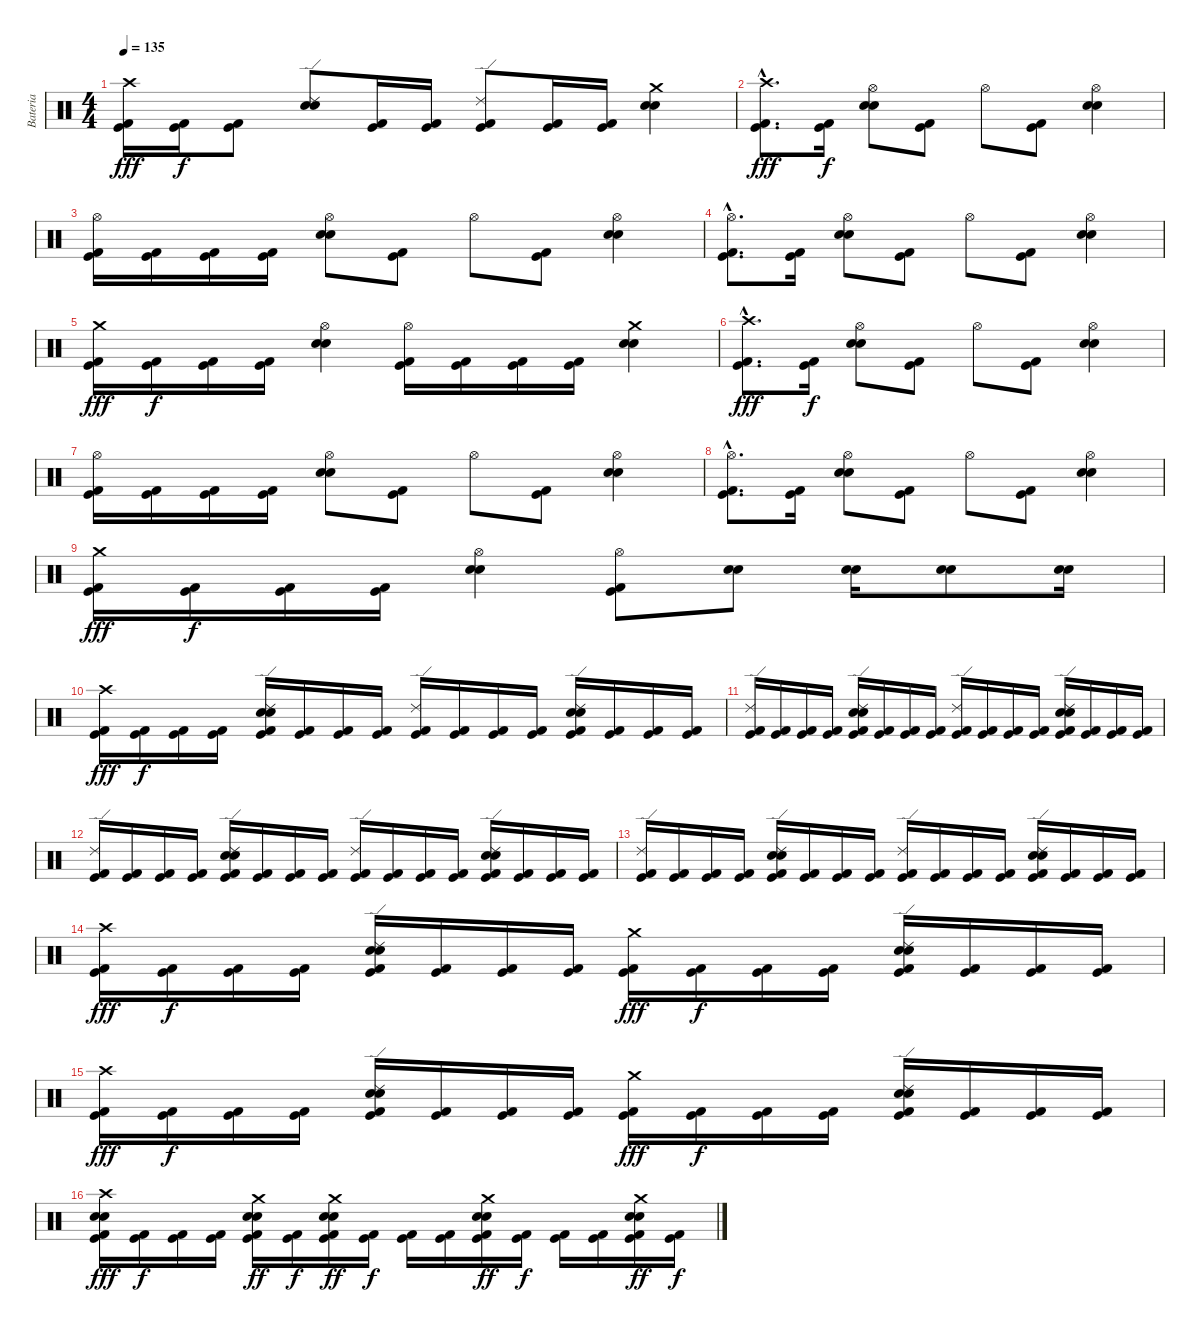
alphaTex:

\track ("Bateria" "Bateria") {instrument percussion}
\staff {score}
\articulation defaults
\ts (4 4)
\tempo 135
\clef neutral
\ks c
("Crash high (hit)" "Kick (hit) 2" "Kick (hit)").16{dy fff} ("Kick (hit) 2" "Kick (hit)").16{dy f} ("Kick (hit) 2" "Kick (hit)").8 ("Ride (edge) 2" "Electric Snare (hit)" "Snare (hit) 2").8 ("Kick (hit) 2" "Kick (hit)").16 ("Kick (hit) 2" "Kick (hit)").16 ("Ride (edge) 2" "Kick (hit) 2" "Kick (hit)").8 ("Kick (hit) 2" "Kick (hit)").16 ("Kick (hit) 2" "Kick (hit)").16 ("Crash medium (hit)" "Electric Snare (hit)" "Snare (hit) 2").4 |
("Crash high (hit)"{hac} "Kick (hit) 2"{hac} "Kick (hit)"{hac}).8{d dy fff} ("Kick (hit) 2" "Kick (hit)").16{dy f} ("Hi-Hat (open)" "Electric Snare (hit)" "Snare (hit) 2").8 ("Kick (hit) 2" "Kick (hit)").8 "Hi-Hat (open)".8 ("Kick (hit) 2" "Kick (hit)").8 ("Hi-Hat (open)" "Electric Snare (hit)" "Snare (hit) 2").4 |
("Hi-Hat (open)" "Kick (hit) 2" "Kick (hit)").16 ("Kick (hit) 2" "Kick (hit)").16 ("Kick (hit) 2" "Kick (hit)").16 ("Kick (hit) 2" "Kick (hit)").16 ("Hi-Hat (open)" "Electric Snare (hit)" "Snare (hit) 2").8 ("Kick (hit) 2" "Kick (hit)").8 "Hi-Hat (open)".8 ("Kick (hit) 2" "Kick (hit)").8 ("Hi-Hat (open)" "Electric Snare (hit)" "Snare (hit) 2").4 |
("Hi-Hat (open)"{hac} "Kick (hit) 2"{hac} "Kick (hit)"{hac}).8{d} ("Kick (hit) 2" "Kick (hit)").16 ("Hi-Hat (open)" "Electric Snare (hit)" "Snare (hit) 2").8 ("Kick (hit) 2" "Kick (hit)").8 "Hi-Hat (open)".8 ("Kick (hit) 2" "Kick (hit)").8 ("Hi-Hat (open)" "Electric Snare (hit)" "Snare (hit) 2").4 |
("Crash medium (hit)" "Kick (hit) 2" "Kick (hit)").16{dy fff} ("Kick (hit) 2" "Kick (hit)").16{dy f} ("Kick (hit) 2" "Kick (hit)").16 ("Kick (hit) 2" "Kick (hit)").16 ("Hi-Hat (open)" "Electric Snare (hit)" "Snare (hit) 2").4 ("Hi-Hat (open)" "Kick (hit) 2" "Kick (hit)").16 ("Kick (hit) 2" "Kick (hit)").16 ("Kick (hit) 2" "Kick (hit)").16 ("Kick (hit) 2" "Kick (hit)").16 ("Crash medium (hit)" "Electric Snare (hit)" "Snare (hit) 2").4 |
("Crash high (hit)"{hac} "Kick (hit) 2"{hac} "Kick (hit)"{hac}).8{d dy fff} ("Kick (hit) 2" "Kick (hit)").16{dy f} ("Hi-Hat (open)" "Electric Snare (hit)" "Snare (hit) 2").8 ("Kick (hit) 2" "Kick (hit)").8 "Hi-Hat (open)".8 ("Kick (hit) 2" "Kick (hit)").8 ("Hi-Hat (open)" "Electric Snare (hit)" "Snare (hit) 2").4 |
("Hi-Hat (open)" "Kick (hit) 2" "Kick (hit)").16 ("Kick (hit) 2" "Kick (hit)").16 ("Kick (hit) 2" "Kick (hit)").16 ("Kick (hit) 2" "Kick (hit)").16 ("Hi-Hat (open)" "Electric Snare (hit)" "Snare (hit) 2").8 ("Kick (hit) 2" "Kick (hit)").8 "Hi-Hat (open)".8 ("Kick (hit) 2" "Kick (hit)").8 ("Hi-Hat (open)" "Electric Snare (hit)" "Snare (hit) 2").4 |
("Hi-Hat (open)"{hac} "Kick (hit) 2"{hac} "Kick (hit)"{hac}).8{d} ("Kick (hit) 2" "Kick (hit)").16 ("Hi-Hat (open)" "Electric Snare (hit)" "Snare (hit) 2").8 ("Kick (hit) 2" "Kick (hit)").8 "Hi-Hat (open)".8 ("Kick (hit) 2" "Kick (hit)").8 ("Hi-Hat (open)" "Electric Snare (hit)" "Snare (hit) 2").4 |
("Crash medium (hit)" "Kick (hit) 2" "Kick (hit)").16{dy fff} ("Kick (hit) 2" "Kick (hit)").16{dy f} ("Kick (hit) 2" "Kick (hit)").16 ("Kick (hit) 2" "Kick (hit)").16 ("Hi-Hat (open)" "Electric Snare (hit)" "Snare (hit) 2").4 ("Hi-Hat (open)" "Kick (hit) 2" "Kick (hit)").8 ("Electric Snare (hit)" "Snare (hit) 2").8 ("Electric Snare (hit)" "Snare (hit) 2").16 ("Electric Snare (hit)" "Snare (hit) 2").8 ("Electric Snare (hit)" "Snare (hit) 2").16 |
("Crash high (hit)" "Kick (hit) 2" "Kick (hit)").16{dy fff} ("Kick (hit) 2" "Kick (hit)").16{dy f} ("Kick (hit) 2" "Kick (hit)").16 ("Kick (hit) 2" "Kick (hit)").16 ("Ride (edge) 2" "Electric Snare (hit)" "Snare (hit) 2" "Kick (hit) 2" "Kick (hit)").16 ("Kick (hit) 2" "Kick (hit)").16 ("Kick (hit) 2" "Kick (hit)").16 ("Kick (hit) 2" "Kick (hit)").16 ("Ride (edge) 2" "Kick (hit) 2" "Kick (hit)").16 ("Kick (hit) 2" "Kick (hit)").16 ("Kick (hit) 2" "Kick (hit)").16 ("Kick (hit) 2" "Kick (hit)").16 ("Ride (edge) 2" "Electric Snare (hit)" "Snare (hit) 2" "Kick (hit) 2" "Kick (hit)").16 ("Kick (hit) 2" "Kick (hit)").16 ("Kick (hit) 2" "Kick (hit)").16 ("Kick (hit) 2" "Kick (hit)").16 |
("Ride (edge) 2" "Kick (hit) 2" "Kick (hit)").16 ("Kick (hit) 2" "Kick (hit)").16 ("Kick (hit) 2" "Kick (hit)").16 ("Kick (hit) 2" "Kick (hit)").16 ("Ride (edge) 2" "Electric Snare (hit)" "Snare (hit) 2" "Kick (hit) 2" "Kick (hit)").16 ("Kick (hit) 2" "Kick (hit)").16 ("Kick (hit) 2" "Kick (hit)").16 ("Kick (hit) 2" "Kick (hit)").16 ("Ride (edge) 2" "Kick (hit) 2" "Kick (hit)").16 ("Kick (hit) 2" "Kick (hit)").16 ("Kick (hit) 2" "Kick (hit)").16 ("Kick (hit) 2" "Kick (hit)").16 ("Ride (edge) 2" "Electric Snare (hit)" "Snare (hit) 2" "Kick (hit) 2" "Kick (hit)").16 ("Kick (hit) 2" "Kick (hit)").16 ("Kick (hit) 2" "Kick (hit)").16 ("Kick (hit) 2" "Kick (hit)").16 |
("Ride (edge) 2" "Kick (hit) 2" "Kick (hit)").16 ("Kick (hit) 2" "Kick (hit)").16 ("Kick (hit) 2" "Kick (hit)").16 ("Kick (hit) 2" "Kick (hit)").16 ("Ride (edge) 2" "Electric Snare (hit)" "Snare (hit) 2" "Kick (hit) 2" "Kick (hit)").16 ("Kick (hit) 2" "Kick (hit)").16 ("Kick (hit) 2" "Kick (hit)").16 ("Kick (hit) 2" "Kick (hit)").16 ("Ride (edge) 2" "Kick (hit) 2" "Kick (hit)").16 ("Kick (hit) 2" "Kick (hit)").16 ("Kick (hit) 2" "Kick (hit)").16 ("Kick (hit) 2" "Kick (hit)").16 ("Ride (edge) 2" "Electric Snare (hit)" "Snare (hit) 2" "Kick (hit) 2" "Kick (hit)").16 ("Kick (hit) 2" "Kick (hit)").16 ("Kick (hit) 2" "Kick (hit)").16 ("Kick (hit) 2" "Kick (hit)").16 |
("Ride (edge) 2" "Kick (hit) 2" "Kick (hit)").16 ("Kick (hit) 2" "Kick (hit)").16 ("Kick (hit) 2" "Kick (hit)").16 ("Kick (hit) 2" "Kick (hit)").16 ("Ride (edge) 2" "Electric Snare (hit)" "Snare (hit) 2" "Kick (hit) 2" "Kick (hit)").16 ("Kick (hit) 2" "Kick (hit)").16 ("Kick (hit) 2" "Kick (hit)").16 ("Kick (hit) 2" "Kick (hit)").16 ("Ride (edge) 2" "Kick (hit) 2" "Kick (hit)").16 ("Kick (hit) 2" "Kick (hit)").16 ("Kick (hit) 2" "Kick (hit)").16 ("Kick (hit) 2" "Kick (hit)").16 ("Ride (edge) 2" "Electric Snare (hit)" "Snare (hit) 2" "Kick (hit) 2" "Kick (hit)").16 ("Kick (hit) 2" "Kick (hit)").16 ("Kick (hit) 2" "Kick (hit)").16 ("Kick (hit) 2" "Kick (hit)").16 |
("Crash high (hit)" "Kick (hit) 2" "Kick (hit)").16{dy fff} ("Kick (hit) 2" "Kick (hit)").16{dy f} ("Kick (hit) 2" "Kick (hit)").16 ("Kick (hit) 2" "Kick (hit)").16 ("Ride (edge) 2" "Electric Snare (hit)" "Snare (hit) 2" "Kick (hit) 2" "Kick (hit)").16 ("Kick (hit) 2" "Kick (hit)").16 ("Kick (hit) 2" "Kick (hit)").16 ("Kick (hit) 2" "Kick (hit)").16 ("Crash medium (hit)" "Kick (hit) 2" "Kick (hit)").16{dy fff} ("Kick (hit) 2" "Kick (hit)").16{dy f} ("Kick (hit) 2" "Kick (hit)").16 ("Kick (hit) 2" "Kick (hit)").16 ("Ride (edge) 2" "Electric Snare (hit)" "Snare (hit) 2" "Kick (hit) 2" "Kick (hit)").16 ("Kick (hit) 2" "Kick (hit)").16 ("Kick (hit) 2" "Kick (hit)").16 ("Kick (hit) 2" "Kick (hit)").16 |
("Crash high (hit)" "Kick (hit) 2" "Kick (hit)").16{dy fff} ("Kick (hit) 2" "Kick (hit)").16{dy f} ("Kick (hit) 2" "Kick (hit)").16 ("Kick (hit) 2" "Kick (hit)").16 ("Ride (edge) 2" "Electric Snare (hit)" "Snare (hit) 2" "Kick (hit) 2" "Kick (hit)").16 ("Kick (hit) 2" "Kick (hit)").16 ("Kick (hit) 2" "Kick (hit)").16 ("Kick (hit) 2" "Kick (hit)").16 ("Crash medium (hit)" "Kick (hit) 2" "Kick (hit)").16{dy fff} ("Kick (hit) 2" "Kick (hit)").16{dy f} ("Kick (hit) 2" "Kick (hit)").16 ("Kick (hit) 2" "Kick (hit)").16 ("Ride (edge) 2" "Electric Snare (hit)" "Snare (hit) 2" "Kick (hit) 2" "Kick (hit)").16 ("Kick (hit) 2" "Kick (hit)").16 ("Kick (hit) 2" "Kick (hit)").16 ("Kick (hit) 2" "Kick (hit)").16 |
("Crash high (hit)" "Electric Snare (hit)" "Snare (hit) 2" "Kick (hit) 2" "Kick (hit)").16{dy fff} ("Kick (hit) 2" "Kick (hit)").16{dy f} ("Kick (hit) 2" "Kick (hit)").16 ("Kick (hit) 2" "Kick (hit)").16 ("Crash medium (hit)" "Electric Snare (hit)" "Snare (hit) 2" "Kick (hit) 2" "Kick (hit)").16{dy ff} ("Kick (hit) 2" "Kick (hit)").16{dy f} ("Crash medium (hit)" "Electric Snare (hit)" "Snare (hit) 2" "Kick (hit) 2" "Kick (hit)").16{dy ff} ("Kick (hit) 2" "Kick (hit)").16{dy f} ("Kick (hit) 2" "Kick (hit)").16 ("Kick (hit) 2" "Kick (hit)").16 ("Crash medium (hit)" "Electric Snare (hit)" "Snare (hit) 2" "Kick (hit) 2" "Kick (hit)").16{dy ff} ("Kick (hit) 2" "Kick (hit)").16{dy f} ("Kick (hit) 2" "Kick (hit)").16 ("Kick (hit) 2" "Kick (hit)").16 ("Crash medium (hit)" "Electric Snare (hit)" "Snare (hit) 2" "Kick (hit) 2" "Kick (hit)").16{dy ff} ("Kick (hit) 2" "Kick (hit)").16{dy f}
